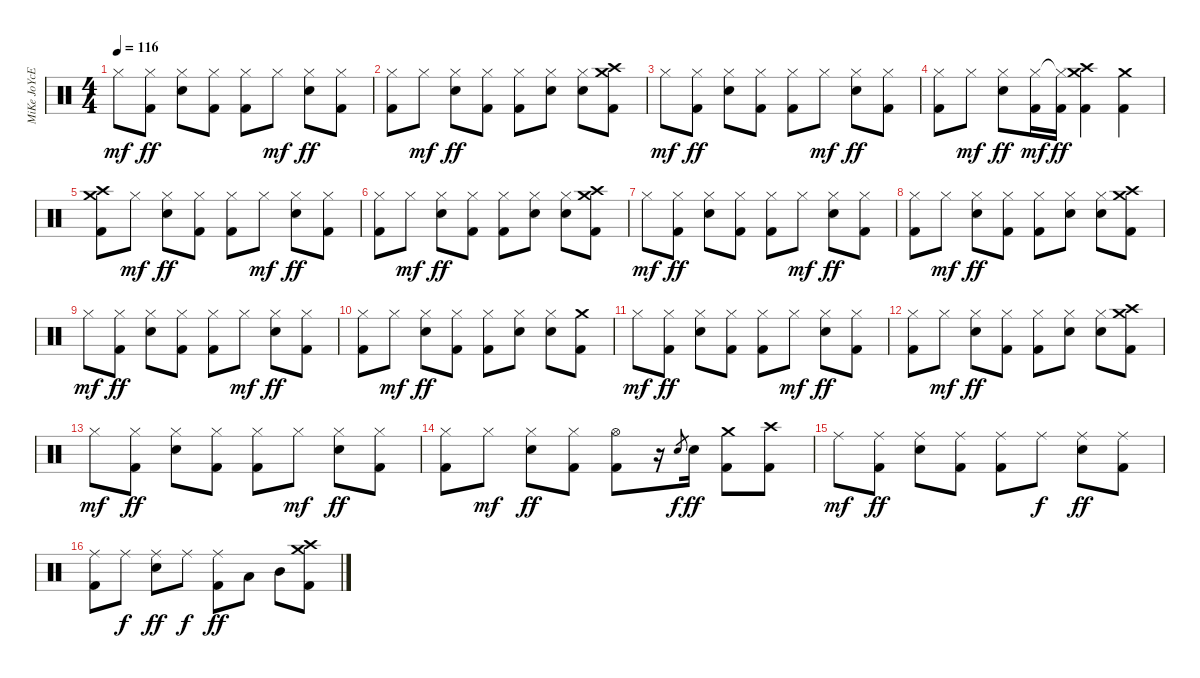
\track ("MiKe JoYcE" "MiKe JoYcE") {instrument percussion}
\staff {score}
\articulation defaults
\ts (4 4)
\tempo 116
\clef neutral
\ks c "Hi-Hat (closed)".8{dy mf}
("Hi-Hat (closed)" "Kick (hit) 2").8{dy ff} ("Hi-Hat (closed)" "Electric Snare (hit)").8 ("Hi-Hat (closed)" "Kick (hit) 2").8 ("Hi-Hat (closed)" "Kick (hit) 2").8 "Hi-Hat (closed)".8{dy mf} ("Hi-Hat (closed)" "Electric Snare (hit)").8{dy ff} ("Hi-Hat (closed)" "Kick (hit) 2").8 |
("Hi-Hat (closed)" "Kick (hit) 2").8 "Hi-Hat (closed)".8{dy mf} ("Hi-Hat (closed)" "Electric Snare (hit)").8{dy ff} ("Hi-Hat (closed)" "Kick (hit) 2").8 ("Hi-Hat (closed)" "Kick (hit) 2").8 ("Hi-Hat (closed)" "Electric Snare (hit)").8 ("Hi-Hat (closed)" "Electric Snare (hit)").8 ("Crash high (hit)" "Crash medium (hit)" "Kick (hit) 2").8 |
"Hi-Hat (closed)".8{dy mf} ("Hi-Hat (closed)" "Kick (hit) 2").8{dy ff} ("Hi-Hat (closed)" "Electric Snare (hit)").8 ("Hi-Hat (closed)" "Kick (hit) 2").8 ("Hi-Hat (closed)" "Kick (hit) 2").8 "Hi-Hat (closed)".8{dy mf} ("Hi-Hat (closed)" "Electric Snare (hit)").8{dy ff} ("Hi-Hat (closed)" "Kick (hit) 2").8 |
("Hi-Hat (closed)" "Kick (hit) 2").8 "Hi-Hat (closed)".8{dy mf} ("Hi-Hat (closed)" "Electric Snare (hit)").8{dy ff} ("Hi-Hat (closed)" "Kick (hit) 2").16{dy mf} ("Hi-Hat (closed)"{t} "Kick (hit) 2").16{dy ff} ("Crash high (hit)" "Crash medium (hit)" "Kick (hit) 2").4 ("Crash medium (hit)" "Kick (hit) 2").4 |
("Crash high (hit)" "Crash medium (hit)" "Kick (hit) 2").8 "Hi-Hat (closed)".8{dy mf} ("Hi-Hat (closed)" "Electric Snare (hit)").8{dy ff} ("Hi-Hat (closed)" "Kick (hit) 2").8 ("Hi-Hat (closed)" "Kick (hit) 2").8 "Hi-Hat (closed)".8{dy mf} ("Hi-Hat (closed)" "Electric Snare (hit)").8{dy ff} ("Hi-Hat (closed)" "Kick (hit) 2").8 |
("Hi-Hat (closed)" "Kick (hit) 2").8 "Hi-Hat (closed)".8{dy mf} ("Hi-Hat (closed)" "Electric Snare (hit)").8{dy ff} ("Hi-Hat (closed)" "Kick (hit) 2").8 ("Hi-Hat (closed)" "Kick (hit) 2").8 ("Hi-Hat (closed)" "Electric Snare (hit)").8 ("Hi-Hat (closed)" "Electric Snare (hit)").8 ("Crash high (hit)" "Crash medium (hit)" "Kick (hit) 2").8 |
"Hi-Hat (closed)".8{dy mf} ("Hi-Hat (closed)" "Kick (hit) 2").8{dy ff} ("Hi-Hat (closed)" "Electric Snare (hit)").8 ("Hi-Hat (closed)" "Kick (hit) 2").8 ("Hi-Hat (closed)" "Kick (hit) 2").8 "Hi-Hat (closed)".8{dy mf} ("Hi-Hat (closed)" "Electric Snare (hit)").8{dy ff} ("Hi-Hat (closed)" "Kick (hit) 2").8 |
("Hi-Hat (closed)" "Kick (hit) 2").8 "Hi-Hat (closed)".8{dy mf} ("Hi-Hat (closed)" "Electric Snare (hit)").8{dy ff} ("Hi-Hat (closed)" "Kick (hit) 2").8 ("Hi-Hat (closed)" "Kick (hit) 2").8 ("Hi-Hat (closed)" "Electric Snare (hit)").8 ("Hi-Hat (closed)" "Electric Snare (hit)").8 ("Crash medium (hit)" "Crash high (hit)" "Kick (hit) 2").8 |
"Hi-Hat (closed)".8{dy mf} ("Hi-Hat (closed)" "Kick (hit) 2").8{dy ff} ("Hi-Hat (closed)" "Electric Snare (hit)").8 ("Hi-Hat (closed)" "Kick (hit) 2").8 ("Hi-Hat (closed)" "Kick (hit) 2").8 "Hi-Hat (closed)".8{dy mf} ("Hi-Hat (closed)" "Electric Snare (hit)").8{dy ff} ("Hi-Hat (closed)" "Kick (hit) 2").8 |
("Hi-Hat (closed)" "Kick (hit) 2").8 "Hi-Hat (closed)".8{dy mf} ("Hi-Hat (closed)" "Electric Snare (hit)").8{dy ff} ("Hi-Hat (closed)" "Kick (hit) 2").8 ("Hi-Hat (closed)" "Kick (hit) 2").8 ("Hi-Hat (closed)" "Electric Snare (hit)").8 ("Hi-Hat (closed)" "Electric Snare (hit)").8 ("Crash medium (hit)" "Kick (hit) 2").8 |
"Hi-Hat (closed)".8{dy mf} ("Hi-Hat (closed)" "Kick (hit) 2").8{dy ff} ("Hi-Hat (closed)" "Electric Snare (hit)").8 ("Hi-Hat (closed)" "Kick (hit) 2").8 ("Hi-Hat (closed)" "Kick (hit) 2").8 "Hi-Hat (closed)".8{dy mf} ("Hi-Hat (closed)" "Electric Snare (hit)").8{dy ff} ("Hi-Hat (closed)" "Kick (hit) 2").8 |
("Hi-Hat (closed)" "Kick (hit) 2").8 "Hi-Hat (closed)".8{dy mf} ("Hi-Hat (closed)" "Electric Snare (hit)").8{dy ff} ("Hi-Hat (closed)" "Kick (hit) 2").8 ("Hi-Hat (closed)" "Kick (hit) 2").8 ("Hi-Hat (closed)" "Electric Snare (hit)").8 ("Hi-Hat (closed)" "Electric Snare (hit)").8 ("Crash high (hit)" "Crash medium (hit)" "Kick (hit) 2").8 |
"Hi-Hat (closed)".8{dy mf} ("Hi-Hat (closed)" "Kick (hit) 2").8{dy ff} ("Hi-Hat (closed)" "Electric Snare (hit)").8 ("Hi-Hat (closed)" "Kick (hit) 2").8 ("Hi-Hat (closed)" "Kick (hit) 2").8 "Hi-Hat (closed)".8{dy mf} ("Hi-Hat (closed)" "Electric Snare (hit)").8{dy ff} ("Hi-Hat (closed)" "Kick (hit) 2").8 |
("Hi-Hat (closed)" "Kick (hit) 2").8 "Hi-Hat (closed)".8{dy mf} ("Hi-Hat (closed)" "Electric Snare (hit)").8{dy ff} ("Hi-Hat (closed)" "Kick (hit) 2").8 ("Hi-Hat (open)" "Kick (hit) 2").8 r.16 "Electric Snare (hit)".8{gr dy f} "Electric Snare (hit)".16{dy ff} ("Crash medium (hit)" "Kick (hit) 2").8 ("Crash high (hit)" "Kick (hit) 2").8 |
"Ride (middle)".8{dy mf} ("Ride (middle)" "Kick (hit) 2").8{dy ff} ("Ride (middle)" "Electric Snare (hit)").8 ("Ride (middle)" "Kick (hit) 2").8 ("Ride (middle)" "Kick (hit) 2").8 "Ride (middle)".8{dy f} ("Ride (middle)" "Electric Snare (hit)").8{dy ff} ("Ride (middle)" "Kick (hit) 2").8 |
("Ride (middle)" "Kick (hit) 2").8 "Ride (middle)".8{dy f} ("Ride (middle)" "Electric Snare (hit)").8{dy ff} "Ride (middle)".8{dy f} ("Ride (middle)" "Kick (hit) 2").8{dy ff} "Low Tom (hit)".8 "Mid Tom (hit)".8 ("Crash high (hit)" "Crash medium (hit)" "Kick (hit) 2").8
